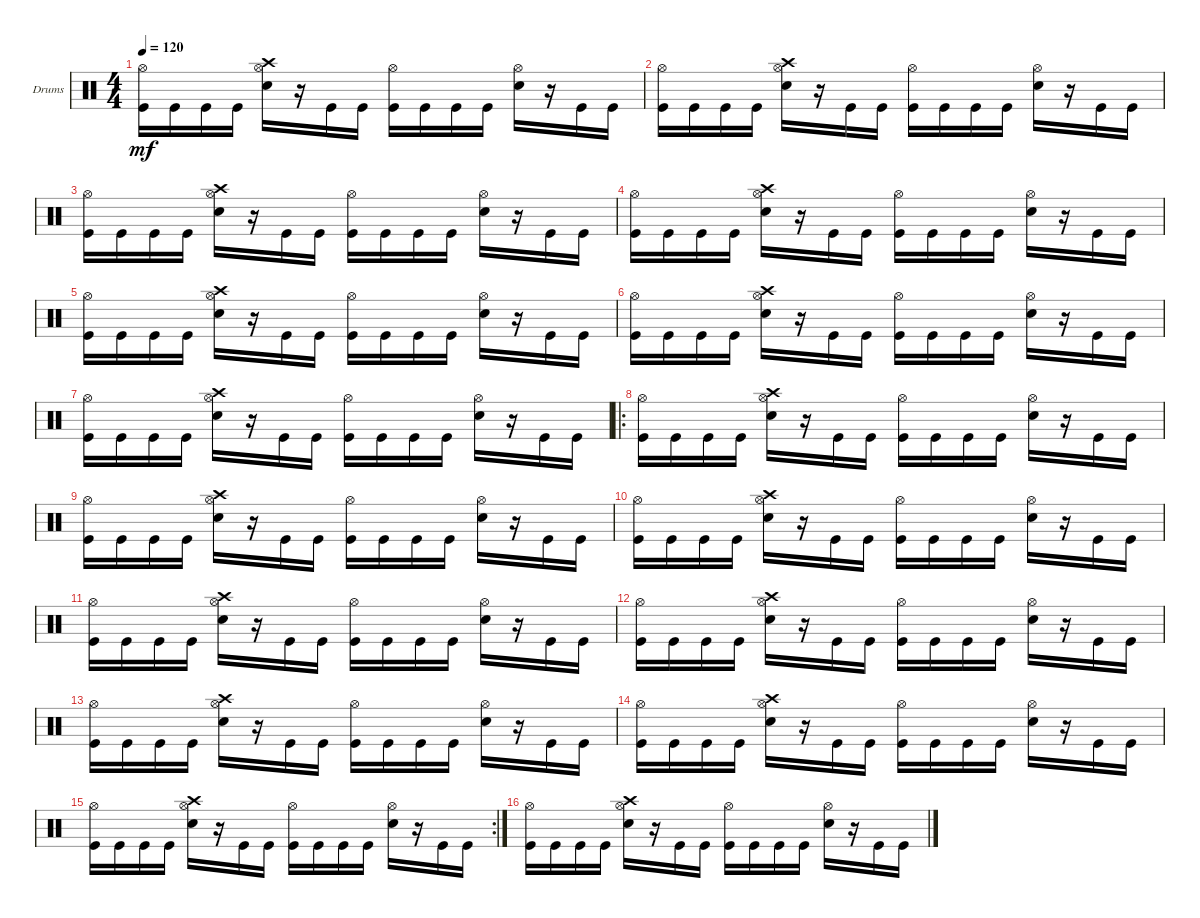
\bracketExtendMode groupsimilarinstruments
\firstSystemTrackNameOrientation horizontal
\otherSystemsTrackNameOrientation horizontal
\track ("Drumkit" "Drums") {instrument percussion}
\staff {score}
\articulation defaults
\ts (4 4)
\tempo 120
\clef neutral
\scale
0.333333
\ks c
("Hi-Hat (open)" "Kick (hit)").16{dy mf} "Kick (hit)".16 "Kick (hit)".16 "Kick (hit)".16 ("Snare (hit) 2" "Crash high (hit)" "Hi-Hat (open)").16 r.16 "Kick (hit)".16 "Kick (hit)".16 ("Kick (hit)" "Hi-Hat (open)").16 "Kick (hit)".16 "Kick (hit)".16 "Kick (hit)".16 ("Snare (hit) 2" "Hi-Hat (open)").16 r.16 "Kick (hit)".16 "Kick (hit)".16 |
\scale
0.333333 ("Hi-Hat (open)" "Kick (hit)").16 "Kick (hit)".16 "Kick (hit)".16 "Kick (hit)".16 ("Snare (hit) 2" "Crash high (hit)" "Hi-Hat (open)").16 r.16 "Kick (hit)".16 "Kick (hit)".16 ("Kick (hit)" "Hi-Hat (open)").16 "Kick (hit)".16 "Kick (hit)".16 "Kick (hit)".16 ("Snare (hit) 2" "Hi-Hat (open)").16 r.16 "Kick (hit)".16 "Kick (hit)".16 |
\scale
0.311111 ("Hi-Hat (open)" "Kick (hit)").16 "Kick (hit)".16 "Kick (hit)".16 "Kick (hit)".16 ("Snare (hit) 2" "Crash high (hit)" "Hi-Hat (open)").16 r.16 "Kick (hit)".16 "Kick (hit)".16 ("Kick (hit)" "Hi-Hat (open)").16 "Kick (hit)".16 "Kick (hit)".16 "Kick (hit)".16 ("Snare (hit) 2" "Hi-Hat (open)").16 r.16 "Kick (hit)".16 "Kick (hit)".16 |
("Hi-Hat (open)" "Kick (hit)").16 "Kick (hit)".16 "Kick (hit)".16 "Kick (hit)".16 ("Snare (hit) 2" "Crash high (hit)" "Hi-Hat (open)").16 r.16 "Kick (hit)".16 "Kick (hit)".16 ("Kick (hit)" "Hi-Hat (open)").16 "Kick (hit)".16 "Kick (hit)".16 "Kick (hit)".16 ("Snare (hit) 2" "Hi-Hat (open)").16 r.16 "Kick (hit)".16 "Kick (hit)".16 |
("Hi-Hat (open)" "Kick (hit)").16 "Kick (hit)".16 "Kick (hit)".16 "Kick (hit)".16 ("Snare (hit) 2" "Crash high (hit)" "Hi-Hat (open)").16 r.16 "Kick (hit)".16 "Kick (hit)".16 ("Kick (hit)" "Hi-Hat (open)").16 "Kick (hit)".16 "Kick (hit)".16 "Kick (hit)".16 ("Snare (hit) 2" "Hi-Hat (open)").16 r.16 "Kick (hit)".16 "Kick (hit)".16 |
("Hi-Hat (open)" "Kick (hit)").16 "Kick (hit)".16 "Kick (hit)".16 "Kick (hit)".16 ("Snare (hit) 2" "Crash high (hit)" "Hi-Hat (open)").16 r.16 "Kick (hit)".16 "Kick (hit)".16 ("Kick (hit)" "Hi-Hat (open)").16 "Kick (hit)".16 "Kick (hit)".16 "Kick (hit)".16 ("Snare (hit) 2" "Hi-Hat (open)").16 r.16 "Kick (hit)".16 "Kick (hit)".16 |
("Hi-Hat (open)" "Kick (hit)").16 "Kick (hit)".16 "Kick (hit)".16 "Kick (hit)".16 ("Snare (hit) 2" "Crash high (hit)" "Hi-Hat (open)").16 r.16 "Kick (hit)".16 "Kick (hit)".16 ("Kick (hit)" "Hi-Hat (open)").16 "Kick (hit)".16 "Kick (hit)".16 "Kick (hit)".16 ("Snare (hit) 2" "Hi-Hat (open)").16 r.16 "Kick (hit)".16 "Kick (hit)".16 |
\ro
\scale
0.377778 ("Hi-Hat (open)" "Kick (hit)").16 "Kick (hit)".16 "Kick (hit)".16 "Kick (hit)".16 ("Snare (hit) 2" "Crash high (hit)" "Hi-Hat (open)").16 r.16 "Kick (hit)".16 "Kick (hit)".16 ("Kick (hit)" "Hi-Hat (open)").16 "Kick (hit)".16 "Kick (hit)".16 "Kick (hit)".16 ("Snare (hit) 2" "Hi-Hat (open)").16 r.16 "Kick (hit)".16 "Kick (hit)".16 |
\scale
0.333333 ("Hi-Hat (open)" "Kick (hit)").16 "Kick (hit)".16 "Kick (hit)".16 "Kick (hit)".16 ("Snare (hit) 2" "Crash high (hit)" "Hi-Hat (open)").16 r.16 "Kick (hit)".16 "Kick (hit)".16 ("Kick (hit)" "Hi-Hat (open)").16 "Kick (hit)".16 "Kick (hit)".16 "Kick (hit)".16 ("Snare (hit) 2" "Hi-Hat (open)").16 r.16 "Kick (hit)".16 "Kick (hit)".16 |
\scale
0.333333 ("Hi-Hat (open)" "Kick (hit)").16 "Kick (hit)".16 "Kick (hit)".16 "Kick (hit)".16 ("Snare (hit) 2" "Crash high (hit)" "Hi-Hat (open)").16 r.16 "Kick (hit)".16 "Kick (hit)".16 ("Kick (hit)" "Hi-Hat (open)").16 "Kick (hit)".16 "Kick (hit)".16 "Kick (hit)".16 ("Snare (hit) 2" "Hi-Hat (open)").16 r.16 "Kick (hit)".16 "Kick (hit)".16 |
\scale
0.333333 ("Hi-Hat (open)" "Kick (hit)").16 "Kick (hit)".16 "Kick (hit)".16 "Kick (hit)".16 ("Snare (hit) 2" "Crash high (hit)" "Hi-Hat (open)").16 r.16 "Kick (hit)".16 "Kick (hit)".16 ("Kick (hit)" "Hi-Hat (open)").16 "Kick (hit)".16 "Kick (hit)".16 "Kick (hit)".16 ("Snare (hit) 2" "Hi-Hat (open)").16 r.16 "Kick (hit)".16 "Kick (hit)".16 |
\scale
0.333333 ("Hi-Hat (open)" "Kick (hit)").16 "Kick (hit)".16 "Kick (hit)".16 "Kick (hit)".16 ("Snare (hit) 2" "Crash high (hit)" "Hi-Hat (open)").16 r.16 "Kick (hit)".16 "Kick (hit)".16 ("Kick (hit)" "Hi-Hat (open)").16 "Kick (hit)".16 "Kick (hit)".16 "Kick (hit)".16 ("Snare (hit) 2" "Hi-Hat (open)").16 r.16 "Kick (hit)".16 "Kick (hit)".16 |
\scale
0.333333 ("Hi-Hat (open)" "Kick (hit)").16 "Kick (hit)".16 "Kick (hit)".16 "Kick (hit)".16 ("Snare (hit) 2" "Crash high (hit)" "Hi-Hat (open)").16 r.16 "Kick (hit)".16 "Kick (hit)".16 ("Kick (hit)" "Hi-Hat (open)").16 "Kick (hit)".16 "Kick (hit)".16 "Kick (hit)".16 ("Snare (hit) 2" "Hi-Hat (open)").16 r.16 "Kick (hit)".16 "Kick (hit)".16 |
\scale
0.333333 ("Hi-Hat (open)" "Kick (hit)").16 "Kick (hit)".16 "Kick (hit)".16 "Kick (hit)".16 ("Snare (hit) 2" "Crash high (hit)" "Hi-Hat (open)").16 r.16 "Kick (hit)".16 "Kick (hit)".16 ("Kick (hit)" "Hi-Hat (open)").16 "Kick (hit)".16 "Kick (hit)".16 "Kick (hit)".16 ("Snare (hit) 2" "Hi-Hat (open)").16 r.16 "Kick (hit)".16 "Kick (hit)".16 |
\rc 2
\scale
0.356322 ("Hi-Hat (open)" "Kick (hit)").16 "Kick (hit)".16 "Kick (hit)".16 "Kick (hit)".16 ("Snare (hit) 2" "Crash high (hit)" "Hi-Hat (open)").16 r.16 "Kick (hit)".16 "Kick (hit)".16 ("Kick (hit)" "Hi-Hat (open)").16 "Kick (hit)".16 "Kick (hit)".16 "Kick (hit)".16 ("Snare (hit) 2" "Hi-Hat (open)").16 r.16 "Kick (hit)".16 "Kick (hit)".16 |
\scale
0.321839 ("Hi-Hat (open)" "Kick (hit)").16 "Kick (hit)".16 "Kick (hit)".16 "Kick (hit)".16 ("Snare (hit) 2" "Crash high (hit)" "Hi-Hat (open)").16 r.16 "Kick (hit)".16 "Kick (hit)".16 ("Kick (hit)" "Hi-Hat (open)").16 "Kick (hit)".16 "Kick (hit)".16 "Kick (hit)".16 ("Snare (hit) 2" "Hi-Hat (open)").16 r.16 "Kick (hit)".16 "Kick (hit)".16
